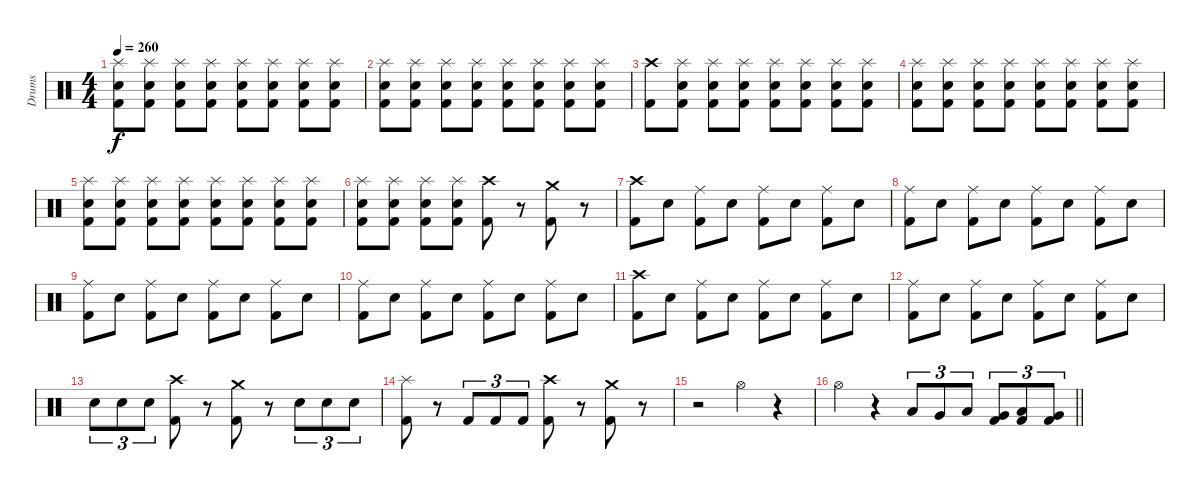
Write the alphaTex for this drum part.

\track ("Drums" "Drums") {instrument percussion}
\staff {score}
\articulation defaults
\ts (4 4)
\tempo 260
\clef neutral
\ks c
("Splash (hit)" "Electric Snare (hit)" "Kick (hit) 2").8{dy f} ("Splash (hit)" "Electric Snare (hit)" "Kick (hit) 2").8 ("Splash (hit)" "Electric Snare (hit)" "Kick (hit) 2").8 ("Splash (hit)" "Electric Snare (hit)" "Kick (hit) 2").8 ("Splash (hit)" "Electric Snare (hit)" "Kick (hit) 2").8 ("Splash (hit)" "Electric Snare (hit)" "Kick (hit) 2").8 ("Splash (hit)" "Electric Snare (hit)" "Kick (hit) 2").8 ("Splash (hit)" "Electric Snare (hit)" "Kick (hit) 2").8 |
("Splash (hit)" "Electric Snare (hit)" "Kick (hit) 2").8 ("Splash (hit)" "Electric Snare (hit)" "Kick (hit) 2").8 ("Splash (hit)" "Electric Snare (hit)" "Kick (hit) 2").8 ("Splash (hit)" "Electric Snare (hit)" "Kick (hit) 2").8 ("Splash (hit)" "Electric Snare (hit)" "Kick (hit) 2").8 ("Splash (hit)" "Electric Snare (hit)" "Kick (hit) 2").8 ("Splash (hit)" "Electric Snare (hit)" "Kick (hit) 2").8 ("Splash (hit)" "Electric Snare (hit)" "Kick (hit) 2").8 |
("Crash high (hit)" "Kick (hit) 2").8 ("Splash (hit)" "Electric Snare (hit)" "Kick (hit) 2").8 ("Splash (hit)" "Electric Snare (hit)" "Kick (hit) 2").8 ("Splash (hit)" "Electric Snare (hit)" "Kick (hit) 2").8 ("Splash (hit)" "Electric Snare (hit)" "Kick (hit) 2").8 ("Splash (hit)" "Electric Snare (hit)" "Kick (hit) 2").8 ("Splash (hit)" "Electric Snare (hit)" "Kick (hit) 2").8 ("Splash (hit)" "Electric Snare (hit)" "Kick (hit) 2").8 |
("Splash (hit)" "Electric Snare (hit)" "Kick (hit) 2").8 ("Splash (hit)" "Electric Snare (hit)" "Kick (hit) 2").8 ("Splash (hit)" "Electric Snare (hit)" "Kick (hit) 2").8 ("Splash (hit)" "Electric Snare (hit)" "Kick (hit) 2").8 ("Splash (hit)" "Electric Snare (hit)" "Kick (hit) 2").8 ("Splash (hit)" "Electric Snare (hit)" "Kick (hit) 2").8 ("Splash (hit)" "Electric Snare (hit)" "Kick (hit) 2").8 ("Splash (hit)" "Electric Snare (hit)" "Kick (hit) 2").8 |
("Splash (hit)" "Electric Snare (hit)" "Kick (hit) 2").8 ("Splash (hit)" "Electric Snare (hit)" "Kick (hit) 2").8 ("Splash (hit)" "Electric Snare (hit)" "Kick (hit) 2").8 ("Splash (hit)" "Electric Snare (hit)" "Kick (hit) 2").8 ("Splash (hit)" "Electric Snare (hit)" "Kick (hit) 2").8 ("Splash (hit)" "Electric Snare (hit)" "Kick (hit) 2").8 ("Splash (hit)" "Electric Snare (hit)" "Kick (hit) 2").8 ("Splash (hit)" "Electric Snare (hit)" "Kick (hit) 2").8 |
("Splash (hit)" "Electric Snare (hit)" "Kick (hit) 2").8 ("Splash (hit)" "Electric Snare (hit)" "Kick (hit) 2").8 ("Splash (hit)" "Electric Snare (hit)" "Kick (hit) 2").8 ("Splash (hit)" "Electric Snare (hit)" "Kick (hit) 2").8 ("Crash high (hit)" "Kick (hit) 2").8 r.8 ("Crash medium (hit)" "Kick (hit) 2").8 r.8 |
("Crash high (hit)" "Kick (hit) 2").8 "Electric Snare (hit)".8 ("Ride (middle)" "Kick (hit) 2").8 "Electric Snare (hit)".8 ("Ride (middle)" "Kick (hit) 2").8 "Electric Snare (hit)".8 ("Ride (middle)" "Kick (hit) 2").8 "Electric Snare (hit)".8 |
("Ride (middle)" "Kick (hit) 2").8 "Electric Snare (hit)".8 ("Ride (middle)" "Kick (hit) 2").8 "Electric Snare (hit)".8 ("Ride (middle)" "Kick (hit) 2").8 "Electric Snare (hit)".8 ("Ride (middle)" "Kick (hit) 2").8 "Electric Snare (hit)".8 |
("Ride (middle)" "Kick (hit) 2").8 "Electric Snare (hit)".8 ("Ride (middle)" "Kick (hit) 2").8 "Electric Snare (hit)".8 ("Ride (middle)" "Kick (hit) 2").8 "Electric Snare (hit)".8 ("Ride (middle)" "Kick (hit) 2").8 "Electric Snare (hit)".8 |
("Ride (middle)" "Kick (hit) 2").8 "Electric Snare (hit)".8 ("Ride (middle)" "Kick (hit) 2").8 "Electric Snare (hit)".8 ("Ride (middle)" "Kick (hit) 2").8 "Electric Snare (hit)".8 ("Ride (middle)" "Kick (hit) 2").8 "Electric Snare (hit)".8 |
("Crash high (hit)" "Kick (hit) 2").8 "Electric Snare (hit)".8 ("Ride (middle)" "Kick (hit) 2").8 "Electric Snare (hit)".8 ("Ride (middle)" "Kick (hit) 2").8 "Electric Snare (hit)".8 ("Ride (middle)" "Kick (hit) 2").8 "Electric Snare (hit)".8 |
("Ride (middle)" "Kick (hit) 2").8 "Electric Snare (hit)".8 ("Ride (middle)" "Kick (hit) 2").8 "Electric Snare (hit)".8 ("Ride (middle)" "Kick (hit) 2").8 "Electric Snare (hit)".8 ("Ride (middle)" "Kick (hit) 2").8 "Electric Snare (hit)".8 |
"Electric Snare (hit)".8{tu (3 2)} "Electric Snare (hit)".8{tu (3 2)} "Electric Snare (hit)".8{tu (3 2)} ("Crash high (hit)" "Kick (hit) 2").8 r.8 ("Crash medium (hit)" "Kick (hit) 2").8 r.8 "Electric Snare (hit)".8{tu (3 2)} "Electric Snare (hit)".8{tu (3 2)} "Electric Snare (hit)".8{tu (3 2)} |
("Splash (hit)" "Kick (hit) 2").8 r.8 "Kick (hit) 2".8{tu (3 2)} "Kick (hit) 2".8{tu (3 2)} "Kick (hit) 2".8{tu (3 2)} ("Crash high (hit)" "Kick (hit) 2").8 r.8 ("Crash medium (hit)" "Kick (hit) 2").8 r.8 |
r.2 "Hi-Hat (open)".4 r.4 |
\barLineRight lightlight "Hi-Hat (open)".4
r.4 "Low Floor Tom (hit)".8{tu (3 2)} "Very Low Tom (hit)".8{tu (3 2)} "Low Floor Tom (hit)".8{tu (3 2)} ("Very Low Tom (hit)" "Kick (hit) 2").8{tu (3 2)} ("Low Tom (hit)" "Kick (hit) 2").8{tu (3 2)} ("Very Low Tom (hit)" "Kick (hit) 2").8{tu (3 2)}
